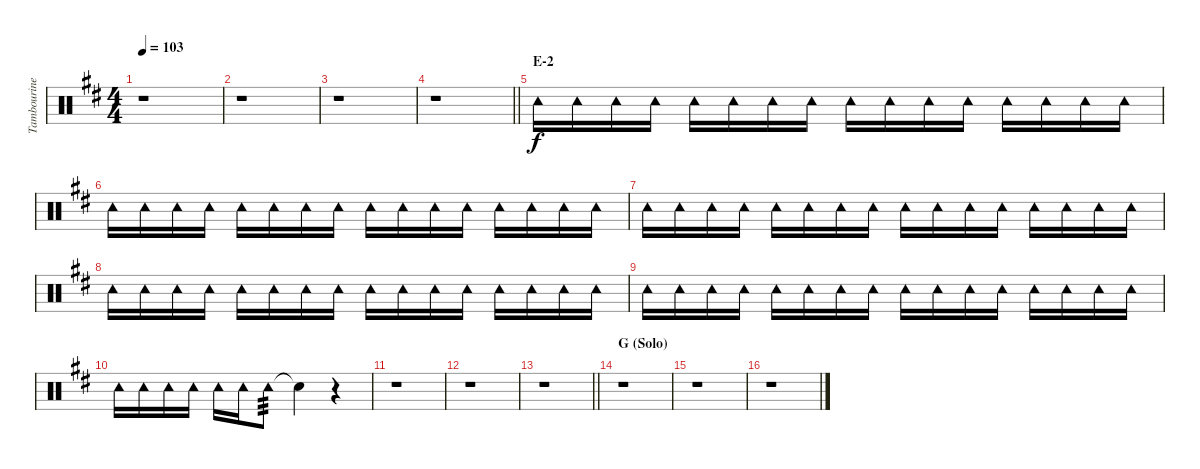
\track ("Tambourine" "Tambourine") {instrument percussion}
\staff {score}
\articulation defaults
\ts (4 4)
\tempo 103
\clef neutral
\ks d
r.1{dy f} |
r.1 |
r.1 |
\barLineRight lightlight
r.1 |
\section ("" "E-2")
"Tambourine (hit)".16 "Tambourine (hit)".16 "Tambourine (hit)".16 "Tambourine (hit)".16 "Tambourine (hit)".16 "Tambourine (hit)".16 "Tambourine (hit)".16 "Tambourine (hit)".16 "Tambourine (hit)".16 "Tambourine (hit)".16 "Tambourine (hit)".16 "Tambourine (hit)".16 "Tambourine (hit)".16 "Tambourine (hit)".16 "Tambourine (hit)".16 "Tambourine (hit)".16 |
"Tambourine (hit)".16 "Tambourine (hit)".16 "Tambourine (hit)".16 "Tambourine (hit)".16 "Tambourine (hit)".16 "Tambourine (hit)".16 "Tambourine (hit)".16 "Tambourine (hit)".16 "Tambourine (hit)".16 "Tambourine (hit)".16 "Tambourine (hit)".16 "Tambourine (hit)".16 "Tambourine (hit)".16 "Tambourine (hit)".16 "Tambourine (hit)".16 "Tambourine (hit)".16 |
"Tambourine (hit)".16 "Tambourine (hit)".16 "Tambourine (hit)".16 "Tambourine (hit)".16 "Tambourine (hit)".16 "Tambourine (hit)".16 "Tambourine (hit)".16 "Tambourine (hit)".16 "Tambourine (hit)".16 "Tambourine (hit)".16 "Tambourine (hit)".16 "Tambourine (hit)".16 "Tambourine (hit)".16 "Tambourine (hit)".16 "Tambourine (hit)".16 "Tambourine (hit)".16 |
"Tambourine (hit)".16 "Tambourine (hit)".16 "Tambourine (hit)".16 "Tambourine (hit)".16 "Tambourine (hit)".16 "Tambourine (hit)".16 "Tambourine (hit)".16 "Tambourine (hit)".16 "Tambourine (hit)".16 "Tambourine (hit)".16 "Tambourine (hit)".16 "Tambourine (hit)".16 "Tambourine (hit)".16 "Tambourine (hit)".16 "Tambourine (hit)".16 "Tambourine (hit)".16 |
"Tambourine (hit)".16 "Tambourine (hit)".16 "Tambourine (hit)".16 "Tambourine (hit)".16 "Tambourine (hit)".16 "Tambourine (hit)".16 "Tambourine (hit)".16 "Tambourine (hit)".16 "Tambourine (hit)".16 "Tambourine (hit)".16 "Tambourine (hit)".16 "Tambourine (hit)".16 "Tambourine (hit)".16 "Tambourine (hit)".16 "Tambourine (hit)".16 "Tambourine (hit)".16 |
"Tambourine (hit)".16 "Tambourine (hit)".16 "Tambourine (hit)".16 "Tambourine (hit)".16 "Tambourine (hit)".16 "Tambourine (hit)".16 "Tambourine (hit)".8{tp 3} "Snare (hit)"{t}.4 r.4 |
r.1 |
r.1 |
\barLineRight lightlight
r.1 |
\section ("" "G (Solo)")
r.1 |
r.1 |
r.1
